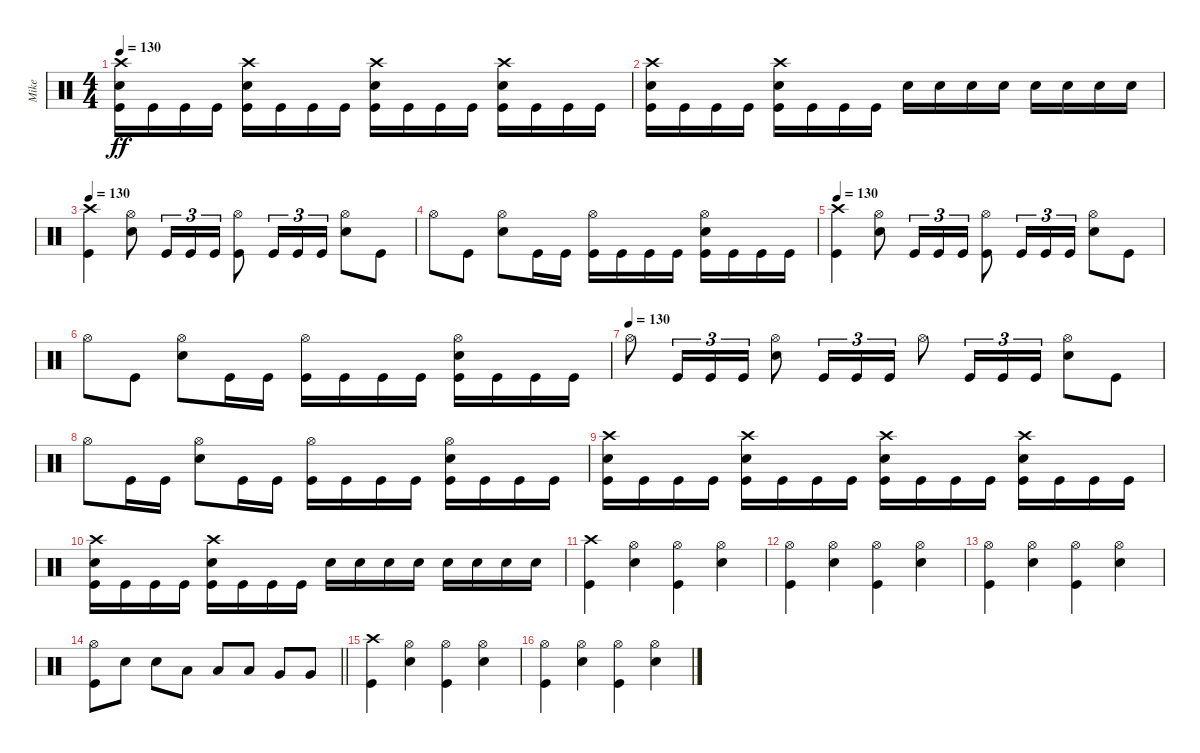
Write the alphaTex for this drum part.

\track ("Mike" "Mike") {instrument percussion}
\staff {score}
\articulation defaults
\ts (4 4)
\tempo 130
\clef neutral
\ks c
("Crash high (hit)" "Snare (hit) 2" "Kick (hit)").16{dy ff} "Kick (hit)".16 "Kick (hit)".16 "Kick (hit)".16 ("Snare (hit) 2" "Crash high (hit)" "Kick (hit)").16 "Kick (hit)".16 "Kick (hit)".16 "Kick (hit)".16 ("Crash high (hit)" "Snare (hit) 2" "Kick (hit)").16 "Kick (hit)".16 "Kick (hit)".16 "Kick (hit)".16 ("Crash high (hit)" "Snare (hit) 2" "Kick (hit)").16 "Kick (hit)".16 "Kick (hit)".16 "Kick (hit)".16 |
("Snare (hit) 2" "Crash high (hit)" "Kick (hit)").16 "Kick (hit)".16 "Kick (hit)".16 "Kick (hit)".16 ("Crash high (hit)" "Snare (hit) 2" "Kick (hit)").16 "Kick (hit)".16 "Kick (hit)".16 "Kick (hit)".16 "Snare (hit) 2".16 "Snare (hit) 2".16 "Snare (hit) 2".16 "Snare (hit) 2".16 "Snare (hit) 2".16 "Snare (hit) 2".16 "Snare (hit) 2".16 "Snare (hit) 2".16 |
\tempo 130
("Crash high (hit)" "Kick (hit)").4 ("Snare (hit) 2" "Hi-Hat (open)").8 "Kick (hit)".16{tu (3 2)} "Kick (hit)".16{tu (3 2)} "Kick (hit)".16{tu (3 2)} ("Hi-Hat (open)" "Kick (hit)").8 "Kick (hit)".16{tu (3 2)} "Kick (hit)".16{tu (3 2)} "Kick (hit)".16{tu (3 2)} ("Snare (hit) 2" "Hi-Hat (open)").8 "Kick (hit)".8 |
"Hi-Hat (open)".8 "Kick (hit)".8 ("Hi-Hat (open)" "Snare (hit) 2").8 "Kick (hit)".16 "Kick (hit)".16 ("Hi-Hat (open)" "Kick (hit)").16 "Kick (hit)".16 "Kick (hit)".16 "Kick (hit)".16 ("Snare (hit) 2" "Hi-Hat (open)" "Kick (hit)").16 "Kick (hit)".16 "Kick (hit)".16 "Kick (hit)".16 |
\tempo 130
("Crash high (hit)" "Kick (hit)").4 ("Snare (hit) 2" "Hi-Hat (open)").8 "Kick (hit)".16{tu (3 2)} "Kick (hit)".16{tu (3 2)} "Kick (hit)".16{tu (3 2)} ("Hi-Hat (open)" "Kick (hit)").8 "Kick (hit)".16{tu (3 2)} "Kick (hit)".16{tu (3 2)} "Kick (hit)".16{tu (3 2)} ("Snare (hit) 2" "Hi-Hat (open)").8 "Kick (hit)".8 |
"Hi-Hat (open)".8 "Kick (hit)".8 ("Hi-Hat (open)" "Snare (hit) 2").8 "Kick (hit)".16 "Kick (hit)".16 ("Hi-Hat (open)" "Kick (hit)").16 "Kick (hit)".16 "Kick (hit)".16 "Kick (hit)".16 ("Snare (hit) 2" "Hi-Hat (open)" "Kick (hit)").16 "Kick (hit)".16 "Kick (hit)".16 "Kick (hit)".16 |
\tempo (130)
"Hi-Hat (open)".8 "Kick (hit)".16{tu (3 2)} "Kick (hit)".16{tu (3 2)} "Kick (hit)".16{tu (3 2)} ("Snare (hit) 2" "Hi-Hat (open)").8 "Kick (hit)".16{tu (3 2)} "Kick (hit)".16{tu (3 2)} "Kick (hit)".16{tu (3 2)} "Hi-Hat (open)".8 "Kick (hit)".16{tu (3 2)} "Kick (hit)".16{tu (3 2)} "Kick (hit)".16{tu (3 2)} ("Hi-Hat (open)" "Snare (hit) 2").8 "Kick (hit)".8 |
"Hi-Hat (open)".8 "Kick (hit)".16 "Kick (hit)".16 ("Snare (hit) 2" "Hi-Hat (open)").8 "Kick (hit)".16 "Kick (hit)".16 ("Hi-Hat (open)" "Kick (hit)").16 "Kick (hit)".16 "Kick (hit)".16 "Kick (hit)".16 ("Hi-Hat (open)" "Snare (hit) 2" "Kick (hit)").16 "Kick (hit)".16 "Kick (hit)".16 "Kick (hit)".16 |
("Crash high (hit)" "Snare (hit) 2" "Kick (hit)").16 "Kick (hit)".16 "Kick (hit)".16 "Kick (hit)".16 ("Snare (hit) 2" "Crash high (hit)" "Kick (hit)").16 "Kick (hit)".16 "Kick (hit)".16 "Kick (hit)".16 ("Crash high (hit)" "Snare (hit) 2" "Kick (hit)").16 "Kick (hit)".16 "Kick (hit)".16 "Kick (hit)".16 ("Crash high (hit)" "Snare (hit) 2" "Kick (hit)").16 "Kick (hit)".16 "Kick (hit)".16 "Kick (hit)".16 |
("Snare (hit) 2" "Crash high (hit)" "Kick (hit)").16 "Kick (hit)".16 "Kick (hit)".16 "Kick (hit)".16 ("Crash high (hit)" "Snare (hit) 2" "Kick (hit)").16 "Kick (hit)".16 "Kick (hit)".16 "Kick (hit)".16 "Snare (hit) 2".16 "Snare (hit) 2".16 "Snare (hit) 2".16 "Snare (hit) 2".16 "Snare (hit) 2".16 "Snare (hit) 2".16 "Snare (hit) 2".16 "Snare (hit) 2".16 |
("Crash high (hit)" "Kick (hit)").4 ("Snare (hit) 2" "Hi-Hat (open)").4 ("Hi-Hat (open)" "Kick (hit)").4 ("Snare (hit) 2" "Hi-Hat (open)").4 |
("Hi-Hat (open)" "Kick (hit)").4 ("Snare (hit) 2" "Hi-Hat (open)").4 ("Kick (hit)" "Hi-Hat (open)").4 ("Hi-Hat (open)" "Snare (hit) 2").4 |
("Kick (hit)" "Hi-Hat (open)").4 ("Hi-Hat (open)" "Snare (hit) 2").4 ("Kick (hit)" "Hi-Hat (open)").4 ("Hi-Hat (open)" "Snare (hit) 2").4 |
\barLineRight lightlight
("Hi-Hat (open)" "Kick (hit)").8 "Snare (hit) 2".8 "Snare (hit) 2".8 "Low Tom (hit)".8 "Low Tom (hit)".8 "Low Tom (hit)".8 "Very Low Tom (hit)".8 "Very Low Tom (hit)".8 |
("Crash high (hit)" "Kick (hit)").4 ("Snare (hit) 2" "Hi-Hat (open)").4 ("Hi-Hat (open)" "Kick (hit)").4 ("Snare (hit) 2" "Hi-Hat (open)").4 |
("Hi-Hat (open)" "Kick (hit)").4 ("Snare (hit) 2" "Hi-Hat (open)").4 ("Kick (hit)" "Hi-Hat (open)").4 ("Hi-Hat (open)" "Snare (hit) 2").4
